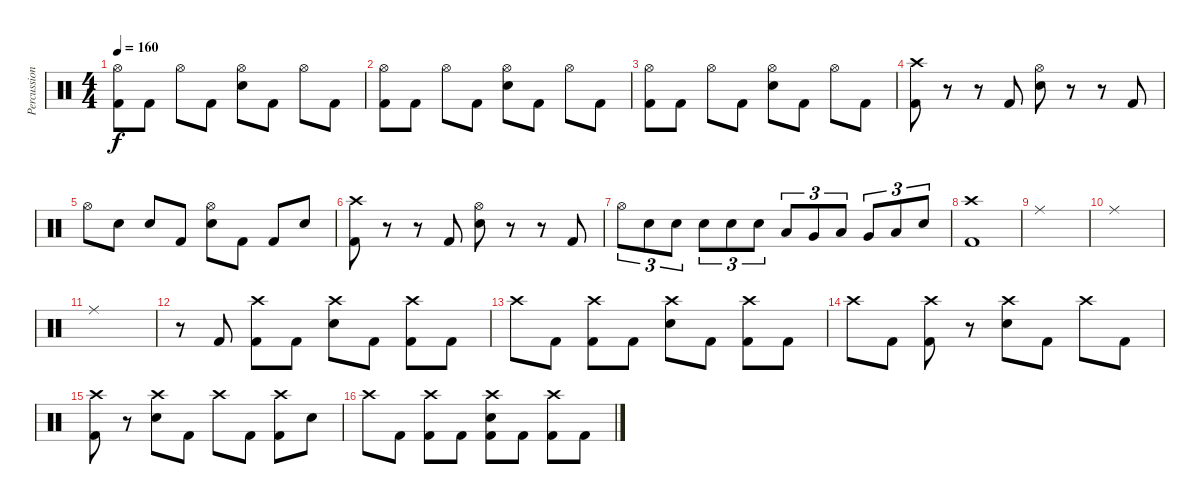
\track ("Percussion" "Percussion") {instrument percussion}
\staff {score}
\articulation defaults
\ts (4 4)
\tempo 160
\clef neutral
\ks c
("Hi-Hat (open)" "Kick (hit) 2").8{dy f} "Kick (hit) 2".8 "Hi-Hat (open)".8 "Kick (hit) 2".8 ("Hi-Hat (open)" "Electric Snare (hit)").8 "Kick (hit) 2".8 "Hi-Hat (open)".8 "Kick (hit) 2".8 |
("Hi-Hat (open)" "Kick (hit) 2").8 "Kick (hit) 2".8 "Hi-Hat (open)".8 "Kick (hit) 2".8 ("Hi-Hat (open)" "Electric Snare (hit)").8 "Kick (hit) 2".8 "Hi-Hat (open)".8 "Kick (hit) 2".8 |
("Hi-Hat (open)" "Kick (hit) 2").8 "Kick (hit) 2".8 "Hi-Hat (open)".8 "Kick (hit) 2".8 ("Hi-Hat (open)" "Electric Snare (hit)").8 "Kick (hit) 2".8 "Hi-Hat (open)".8 "Kick (hit) 2".8 |
("Crash high (hit)" "Kick (hit) 2").8 r.8 r.8 "Kick (hit) 2".8 ("Hi-Hat (open)" "Electric Snare (hit)").8 r.8 r.8 "Kick (hit) 2".8 |
"Hi-Hat (open)".8 "Electric Snare (hit)".8 "Electric Snare (hit)".8 "Kick (hit) 2".8 ("Hi-Hat (open)" "Electric Snare (hit)").8 "Kick (hit) 2".8 "Kick (hit) 2".8 "Electric Snare (hit)".8 |
("Crash high (hit)" "Kick (hit) 2").8 r.8 r.8 "Kick (hit) 2".8 ("Hi-Hat (open)" "Electric Snare (hit)").8 r.8 r.8 "Kick (hit) 2".8 |
"Hi-Hat (open)".8{tu (3 2)} "Electric Snare (hit)".8{tu (3 2)} "Electric Snare (hit)".8{tu (3 2)} "Electric Snare (hit)".8{tu (3 2)} "Electric Snare (hit)".8{tu (3 2)} "Electric Snare (hit)".8{tu (3 2)} "Low Tom (hit)".8{tu (3 2)} "Very Low Tom (hit)".8{tu (3 2)} "Low Floor Tom (hit)".8{tu (3 2)} "Very Low Tom (hit)".8{tu (3 2)} "Low Tom (hit)".8{tu (3 2)} "Electric Snare (hit)".8{tu (3 2)} |
("Crash high (hit)" "Kick (hit) 2").1 |
"Ride (middle)".1 |
"Ride (middle)".1 |
"Ride (middle)".1 |
r.8 "Kick (hit) 2".8 ("Crash high (hit)" "Kick (hit) 2").8 "Kick (hit) 2".8 ("Crash high (hit)" "Electric Snare (hit)").8 "Kick (hit) 2".8 ("Crash high (hit)" "Kick (hit) 2").8 "Kick (hit) 2".8 |
"Crash high (hit)".8 "Kick (hit) 2".8 ("Crash high (hit)" "Kick (hit) 2").8 "Kick (hit) 2".8 ("Crash high (hit)" "Electric Snare (hit)").8 "Kick (hit) 2".8 ("Crash high (hit)" "Kick (hit) 2").8 "Kick (hit) 2".8 |
"Crash high (hit)".8 "Kick (hit) 2".8 ("Crash high (hit)" "Kick (hit) 2").8 r.8 ("Crash high (hit)" "Electric Snare (hit)").8 "Kick (hit) 2".8 "Crash high (hit)".8 "Kick (hit) 2".8 |
("Crash high (hit)" "Kick (hit) 2").8 r.8 ("Crash high (hit)" "Electric Snare (hit)").8 "Kick (hit) 2".8 "Crash high (hit)".8 "Kick (hit) 2".8 ("Crash high (hit)" "Kick (hit) 2").8 "Electric Snare (hit)".8 |
"Crash high (hit)".8 "Kick (hit) 2".8 ("Crash high (hit)" "Kick (hit) 2").8 "Kick (hit) 2".8 ("Crash high (hit)" "Electric Snare (hit)" "Kick (hit) 2").8 "Kick (hit) 2".8 ("Crash high (hit)" "Kick (hit) 2").8 "Kick (hit) 2".8
